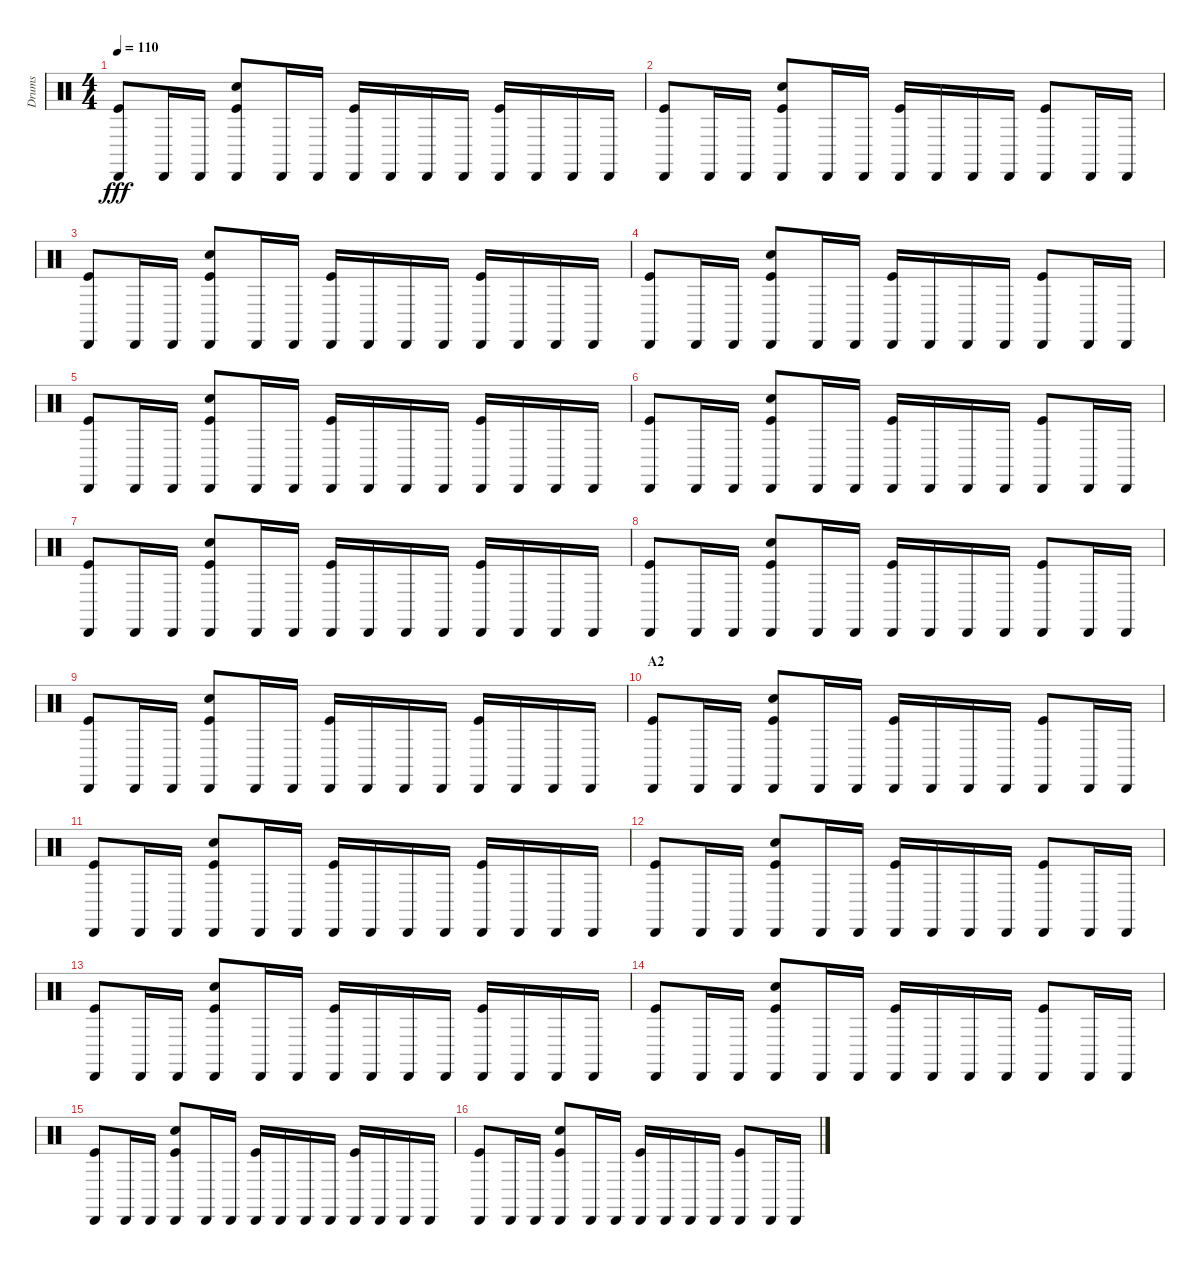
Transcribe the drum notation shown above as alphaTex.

\track ("Drums" "Drums") {instrument percussion}
\staff {score}
\articulation defaults
\ts (4 4)
\tempo 110
\clef neutral
\ks c
("Cabasa (hit)" "Kick (hit)").8{dy fff} "Cabasa (hit)".16 "Cabasa (hit)".16 ("Cabasa (hit)" "Snare (hit) 2" "Kick (hit)").8 "Cabasa (hit)".16 "Cabasa (hit)".16 ("Cabasa (hit)" "Kick (hit)").16 "Cabasa (hit)".16 "Cabasa (hit)".16 "Cabasa (hit)".16 ("Cabasa (hit)" "Kick (hit)").16 "Cabasa (hit)".16 "Cabasa (hit)".16 "Cabasa (hit)".16 |
("Cabasa (hit)" "Kick (hit)").8 "Cabasa (hit)".16 "Cabasa (hit)".16 ("Cabasa (hit)" "Snare (hit) 2" "Kick (hit)").8 "Cabasa (hit)".16 "Cabasa (hit)".16 ("Cabasa (hit)" "Kick (hit)").16 "Cabasa (hit)".16 "Cabasa (hit)".16 "Cabasa (hit)".16 ("Cabasa (hit)" "Kick (hit)").8 "Cabasa (hit)".16 "Cabasa (hit)".16 |
("Cabasa (hit)" "Kick (hit)").8 "Cabasa (hit)".16 "Cabasa (hit)".16 ("Cabasa (hit)" "Snare (hit) 2" "Kick (hit)").8 "Cabasa (hit)".16 "Cabasa (hit)".16 ("Cabasa (hit)" "Kick (hit)").16 "Cabasa (hit)".16 "Cabasa (hit)".16 "Cabasa (hit)".16 ("Cabasa (hit)" "Kick (hit)").16 "Cabasa (hit)".16 "Cabasa (hit)".16 "Cabasa (hit)".16 |
("Cabasa (hit)" "Kick (hit)").8 "Cabasa (hit)".16 "Cabasa (hit)".16 ("Cabasa (hit)" "Snare (hit) 2" "Kick (hit)").8 "Cabasa (hit)".16 "Cabasa (hit)".16 ("Cabasa (hit)" "Kick (hit)").16 "Cabasa (hit)".16 "Cabasa (hit)".16 "Cabasa (hit)".16 ("Cabasa (hit)" "Kick (hit)").8 "Cabasa (hit)".16 "Cabasa (hit)".16 |
("Cabasa (hit)" "Kick (hit)").8 "Cabasa (hit)".16 "Cabasa (hit)".16 ("Cabasa (hit)" "Snare (hit) 2" "Kick (hit)").8 "Cabasa (hit)".16 "Cabasa (hit)".16 ("Cabasa (hit)" "Kick (hit)").16 "Cabasa (hit)".16 "Cabasa (hit)".16 "Cabasa (hit)".16 ("Cabasa (hit)" "Kick (hit)").16 "Cabasa (hit)".16 "Cabasa (hit)".16 "Cabasa (hit)".16 |
("Cabasa (hit)" "Kick (hit)").8 "Cabasa (hit)".16 "Cabasa (hit)".16 ("Cabasa (hit)" "Snare (hit) 2" "Kick (hit)").8 "Cabasa (hit)".16 "Cabasa (hit)".16 ("Cabasa (hit)" "Kick (hit)").16 "Cabasa (hit)".16 "Cabasa (hit)".16 "Cabasa (hit)".16 ("Cabasa (hit)" "Kick (hit)").8 "Cabasa (hit)".16 "Cabasa (hit)".16 |
("Cabasa (hit)" "Kick (hit)").8 "Cabasa (hit)".16 "Cabasa (hit)".16 ("Cabasa (hit)" "Snare (hit) 2" "Kick (hit)").8 "Cabasa (hit)".16 "Cabasa (hit)".16 ("Cabasa (hit)" "Kick (hit)").16 "Cabasa (hit)".16 "Cabasa (hit)".16 "Cabasa (hit)".16 ("Cabasa (hit)" "Kick (hit)").16 "Cabasa (hit)".16 "Cabasa (hit)".16 "Cabasa (hit)".16 |
("Cabasa (hit)" "Kick (hit)").8 "Cabasa (hit)".16 "Cabasa (hit)".16 ("Cabasa (hit)" "Snare (hit) 2" "Kick (hit)").8 "Cabasa (hit)".16 "Cabasa (hit)".16 ("Cabasa (hit)" "Kick (hit)").16 "Cabasa (hit)".16 "Cabasa (hit)".16 "Cabasa (hit)".16 ("Cabasa (hit)" "Kick (hit)").8 "Cabasa (hit)".16 "Cabasa (hit)".16 |
("Cabasa (hit)" "Kick (hit)").8 "Cabasa (hit)".16 "Cabasa (hit)".16 ("Cabasa (hit)" "Snare (hit) 2" "Kick (hit)").8 "Cabasa (hit)".16 "Cabasa (hit)".16 ("Cabasa (hit)" "Kick (hit)").16 "Cabasa (hit)".16 "Cabasa (hit)".16 "Cabasa (hit)".16 ("Cabasa (hit)" "Kick (hit)").16 "Cabasa (hit)".16 "Cabasa (hit)".16 "Cabasa (hit)".16 |
\section ("" "A2")
("Cabasa (hit)" "Kick (hit)").8 "Cabasa (hit)".16 "Cabasa (hit)".16 ("Cabasa (hit)" "Snare (hit) 2" "Kick (hit)").8 "Cabasa (hit)".16 "Cabasa (hit)".16 ("Cabasa (hit)" "Kick (hit)").16 "Cabasa (hit)".16 "Cabasa (hit)".16 "Cabasa (hit)".16 ("Cabasa (hit)" "Kick (hit)").8 "Cabasa (hit)".16 "Cabasa (hit)".16 |
("Cabasa (hit)" "Kick (hit)").8 "Cabasa (hit)".16 "Cabasa (hit)".16 ("Cabasa (hit)" "Snare (hit) 2" "Kick (hit)").8 "Cabasa (hit)".16 "Cabasa (hit)".16 ("Cabasa (hit)" "Kick (hit)").16 "Cabasa (hit)".16 "Cabasa (hit)".16 "Cabasa (hit)".16 ("Cabasa (hit)" "Kick (hit)").16 "Cabasa (hit)".16 "Cabasa (hit)".16 "Cabasa (hit)".16 |
("Cabasa (hit)" "Kick (hit)").8 "Cabasa (hit)".16 "Cabasa (hit)".16 ("Cabasa (hit)" "Snare (hit) 2" "Kick (hit)").8 "Cabasa (hit)".16 "Cabasa (hit)".16 ("Cabasa (hit)" "Kick (hit)").16 "Cabasa (hit)".16 "Cabasa (hit)".16 "Cabasa (hit)".16 ("Cabasa (hit)" "Kick (hit)").8 "Cabasa (hit)".16 "Cabasa (hit)".16 |
("Cabasa (hit)" "Kick (hit)").8 "Cabasa (hit)".16 "Cabasa (hit)".16 ("Cabasa (hit)" "Snare (hit) 2" "Kick (hit)").8 "Cabasa (hit)".16 "Cabasa (hit)".16 ("Cabasa (hit)" "Kick (hit)").16 "Cabasa (hit)".16 "Cabasa (hit)".16 "Cabasa (hit)".16 ("Cabasa (hit)" "Kick (hit)").16 "Cabasa (hit)".16 "Cabasa (hit)".16 "Cabasa (hit)".16 |
("Cabasa (hit)" "Kick (hit)").8 "Cabasa (hit)".16 "Cabasa (hit)".16 ("Cabasa (hit)" "Snare (hit) 2" "Kick (hit)").8 "Cabasa (hit)".16 "Cabasa (hit)".16 ("Cabasa (hit)" "Kick (hit)").16 "Cabasa (hit)".16 "Cabasa (hit)".16 "Cabasa (hit)".16 ("Cabasa (hit)" "Kick (hit)").8 "Cabasa (hit)".16 "Cabasa (hit)".16 |
("Cabasa (hit)" "Kick (hit)").8 "Cabasa (hit)".16 "Cabasa (hit)".16 ("Cabasa (hit)" "Snare (hit) 2" "Kick (hit)").8 "Cabasa (hit)".16 "Cabasa (hit)".16 ("Cabasa (hit)" "Kick (hit)").16 "Cabasa (hit)".16 "Cabasa (hit)".16 "Cabasa (hit)".16 ("Cabasa (hit)" "Kick (hit)").16 "Cabasa (hit)".16 "Cabasa (hit)".16 "Cabasa (hit)".16 |
("Cabasa (hit)" "Kick (hit)").8 "Cabasa (hit)".16 "Cabasa (hit)".16 ("Cabasa (hit)" "Snare (hit) 2" "Kick (hit)").8 "Cabasa (hit)".16 "Cabasa (hit)".16 ("Cabasa (hit)" "Kick (hit)").16 "Cabasa (hit)".16 "Cabasa (hit)".16 "Cabasa (hit)".16 ("Cabasa (hit)" "Kick (hit)").8 "Cabasa (hit)".16 "Cabasa (hit)".16
